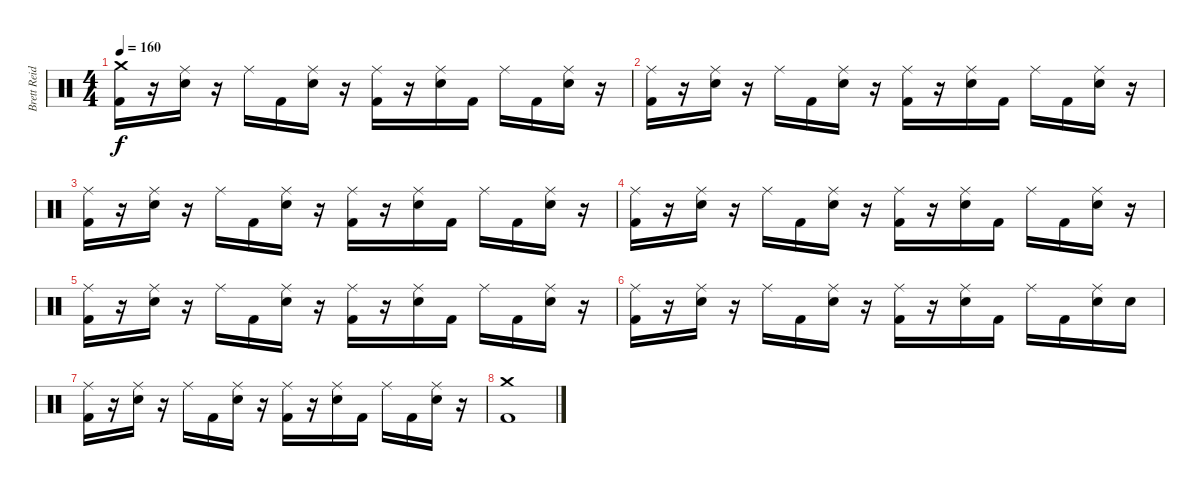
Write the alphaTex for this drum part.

\track ("Brett Reid" "Brett Reid") {instrument percussion}
\staff {score}
\articulation defaults
\ts (4 4)
\tempo 160
\clef neutral
\ks c
("Crash medium (hit)" "Kick (hit) 2").16{dy f} r.16 ("Ride (middle)" "Snare (hit) 2").16 r.16 "Ride (middle)".16 "Kick (hit) 2".16 ("Ride (middle)" "Snare (hit) 2").16 r.16 ("Ride (middle)" "Kick (hit) 2").16 r.16 ("Ride (middle)" "Snare (hit) 2").16 "Kick (hit) 2".16 "Ride (middle)".16 "Kick (hit) 2".16 ("Ride (middle)" "Snare (hit) 2").16 r.16 |
("Ride (middle)" "Kick (hit) 2").16 r.16 ("Ride (middle)" "Snare (hit) 2").16 r.16 "Ride (middle)".16 "Kick (hit) 2".16 ("Ride (middle)" "Snare (hit) 2").16 r.16 ("Ride (middle)" "Kick (hit) 2").16 r.16 ("Ride (middle)" "Snare (hit) 2").16 "Kick (hit) 2".16 "Ride (middle)".16 "Kick (hit) 2".16 ("Ride (middle)" "Snare (hit) 2").16 r.16 |
("Ride (middle)" "Kick (hit) 2").16 r.16 ("Ride (middle)" "Snare (hit) 2").16 r.16 "Ride (middle)".16 "Kick (hit) 2".16 ("Ride (middle)" "Snare (hit) 2").16 r.16 ("Ride (middle)" "Kick (hit) 2").16 r.16 ("Ride (middle)" "Snare (hit) 2").16 "Kick (hit) 2".16 "Ride (middle)".16 "Kick (hit) 2".16 ("Ride (middle)" "Snare (hit) 2").16 r.16 |
("Ride (middle)" "Kick (hit) 2").16 r.16 ("Ride (middle)" "Snare (hit) 2").16 r.16 "Ride (middle)".16 "Kick (hit) 2".16 ("Ride (middle)" "Snare (hit) 2").16 r.16 ("Ride (middle)" "Kick (hit) 2").16 r.16 ("Ride (middle)" "Snare (hit) 2").16 "Kick (hit) 2".16 "Ride (middle)".16 "Kick (hit) 2".16 ("Ride (middle)" "Snare (hit) 2").16 r.16 |
("Ride (middle)" "Kick (hit) 2").16 r.16 ("Ride (middle)" "Snare (hit) 2").16 r.16 "Ride (middle)".16 "Kick (hit) 2".16 ("Ride (middle)" "Snare (hit) 2").16 r.16 ("Ride (middle)" "Kick (hit) 2").16 r.16 ("Ride (middle)" "Snare (hit) 2").16 "Kick (hit) 2".16 "Ride (middle)".16 "Kick (hit) 2".16 ("Ride (middle)" "Snare (hit) 2").16 r.16 |
("Ride (middle)" "Kick (hit) 2").16 r.16 ("Ride (middle)" "Snare (hit) 2").16 r.16 "Ride (middle)".16 "Kick (hit) 2".16 ("Ride (middle)" "Snare (hit) 2").16 r.16 ("Ride (middle)" "Kick (hit) 2").16 r.16 ("Ride (middle)" "Snare (hit) 2").16 "Kick (hit) 2".16 "Ride (middle)".16 "Kick (hit) 2".16 ("Ride (middle)" "Snare (hit) 2").16 "Snare (hit) 2".16 |
("Ride (middle)" "Kick (hit) 2").16 r.16 ("Ride (middle)" "Snare (hit) 2").16 r.16 "Ride (middle)".16 "Kick (hit) 2".16 ("Ride (middle)" "Snare (hit) 2").16 r.16 ("Ride (middle)" "Kick (hit) 2").16 r.16 ("Ride (middle)" "Snare (hit) 2").16 "Kick (hit) 2".16 "Ride (middle)".16 "Kick (hit) 2".16 ("Ride (middle)" "Snare (hit) 2").16 r.16 |
("Crash medium (hit)" "Kick (hit) 2").1
